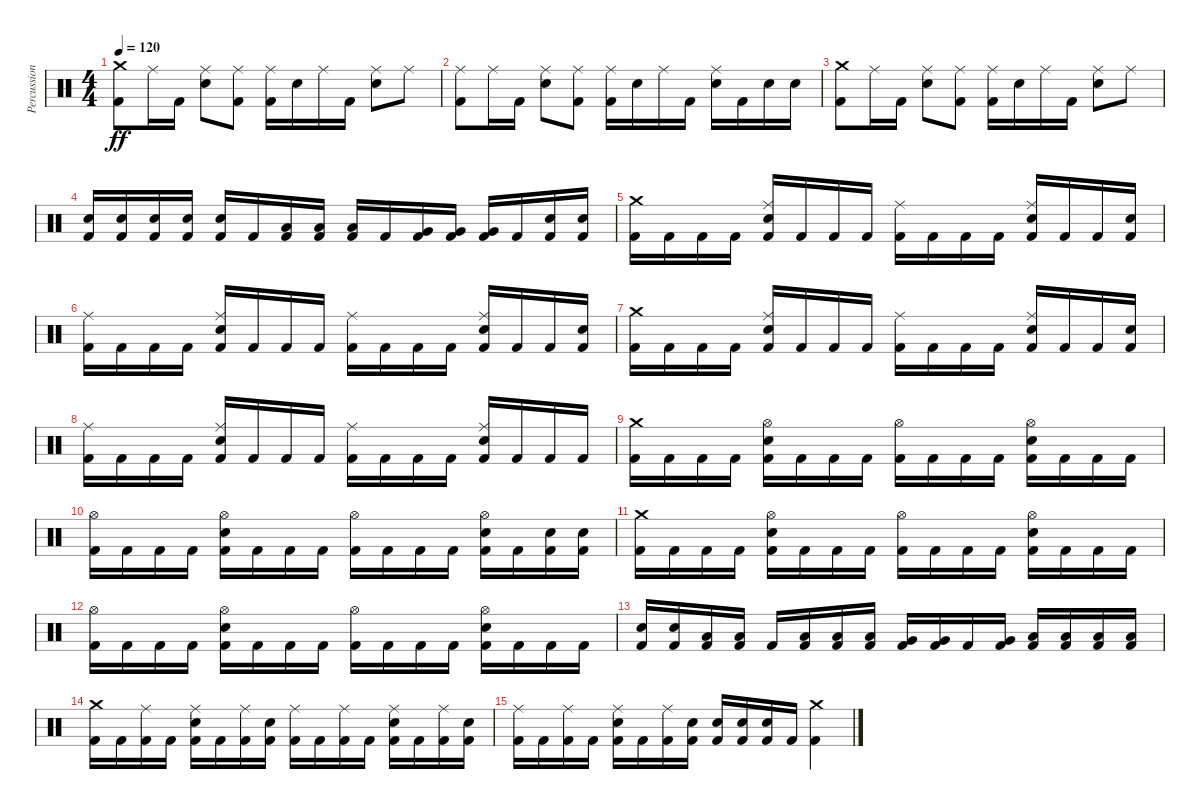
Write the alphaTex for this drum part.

\track ("Percussion" "Percussion") {instrument percussion}
\staff {score}
\articulation defaults
\ts (4 4)
\tempo 120
\clef neutral
\ks c
("Crash medium (hit)" "Kick (hit) 2").8{dy ff} "Ride (middle)".16 "Kick (hit) 2".16 ("Ride (middle)" "Snare (hit) 2").8 ("Ride (middle)" "Kick (hit) 2").8 ("Ride (middle)" "Kick (hit) 2").16 "Snare (hit) 2".16 "Ride (middle)".16 "Kick (hit) 2".16 ("Ride (middle)" "Snare (hit) 2").8 "Ride (middle)".8 |
("Ride (middle)" "Kick (hit) 2").8 "Ride (middle)".16 "Kick (hit) 2".16 ("Ride (middle)" "Snare (hit) 2").8 ("Ride (middle)" "Kick (hit) 2").8 ("Ride (middle)" "Kick (hit) 2").16 "Snare (hit) 2".16 "Ride (middle)".16 "Kick (hit) 2".16 ("Ride (middle)" "Snare (hit) 2").16 "Kick (hit) 2".16 "Snare (hit) 2".16 "Snare (hit) 2".16 |
("Crash medium (hit)" "Kick (hit) 2").8 "Ride (middle)".16 "Kick (hit) 2".16 ("Ride (middle)" "Snare (hit) 2").8 ("Ride (middle)" "Kick (hit) 2").8 ("Ride (middle)" "Kick (hit) 2").16 "Snare (hit) 2".16 "Ride (middle)".16 "Kick (hit) 2".16 ("Ride (middle)" "Snare (hit) 2").8 "Ride (middle)".8 |
("Snare (hit) 2" "Kick (hit) 2").16 ("Snare (hit) 2" "Kick (hit) 2").16 ("Snare (hit) 2" "Kick (hit) 2").16 ("Snare (hit) 2" "Kick (hit) 2").16 ("Snare (hit) 2" "Kick (hit) 2").16 "Kick (hit) 2".16 ("Low Tom (hit)" "Kick (hit) 2").16 ("Low Tom (hit)" "Kick (hit) 2").16 ("Low Tom (hit)" "Kick (hit) 2").16 "Kick (hit) 2".16 ("Very Low Tom (hit)" "Kick (hit) 2").16 ("Very Low Tom (hit)" "Kick (hit) 2").16 ("Very Low Tom (hit)" "Kick (hit) 2").16 "Kick (hit) 2".16 ("Snare (hit) 2" "Kick (hit) 2").16 ("Snare (hit) 2" "Kick (hit) 2").16 |
("Crash medium (hit)" "Kick (hit) 2").16 "Kick (hit) 2".16 "Kick (hit) 2".16 "Kick (hit) 2".16 ("Ride (middle)" "Snare (hit) 2" "Kick (hit) 2").16 "Kick (hit) 2".16 "Kick (hit) 2".16 "Kick (hit) 2".16 ("Ride (middle)" "Kick (hit) 2").16 "Kick (hit) 2".16 "Kick (hit) 2".16 "Kick (hit) 2".16 ("Ride (middle)" "Snare (hit) 2" "Kick (hit) 2").16 "Kick (hit) 2".16 "Kick (hit) 2".16 ("Snare (hit) 2" "Kick (hit) 2").16 |
("Ride (middle)" "Kick (hit) 2").16 "Kick (hit) 2".16 "Kick (hit) 2".16 "Kick (hit) 2".16 ("Ride (middle)" "Snare (hit) 2" "Kick (hit) 2").16 "Kick (hit) 2".16 "Kick (hit) 2".16 "Kick (hit) 2".16 ("Ride (middle)" "Kick (hit) 2").16 "Kick (hit) 2".16 "Kick (hit) 2".16 "Kick (hit) 2".16 ("Ride (middle)" "Snare (hit) 2" "Kick (hit) 2").16 "Kick (hit) 2".16 "Kick (hit) 2".16 ("Snare (hit) 2" "Kick (hit) 2").16 |
("Crash medium (hit)" "Kick (hit) 2").16 "Kick (hit) 2".16 "Kick (hit) 2".16 "Kick (hit) 2".16 ("Ride (middle)" "Snare (hit) 2" "Kick (hit) 2").16 "Kick (hit) 2".16 "Kick (hit) 2".16 "Kick (hit) 2".16 ("Ride (middle)" "Kick (hit) 2").16 "Kick (hit) 2".16 "Kick (hit) 2".16 "Kick (hit) 2".16 ("Ride (middle)" "Snare (hit) 2" "Kick (hit) 2").16 "Kick (hit) 2".16 "Kick (hit) 2".16 ("Snare (hit) 2" "Kick (hit) 2").16 |
("Ride (middle)" "Kick (hit) 2").16 "Kick (hit) 2".16 "Kick (hit) 2".16 "Kick (hit) 2".16 ("Ride (middle)" "Snare (hit) 2" "Kick (hit) 2").16 "Kick (hit) 2".16 "Kick (hit) 2".16 "Kick (hit) 2".16 ("Ride (middle)" "Kick (hit) 2").16 "Kick (hit) 2".16 "Kick (hit) 2".16 "Kick (hit) 2".16 ("Ride (middle)" "Snare (hit) 2" "Kick (hit) 2").16 "Kick (hit) 2".16 "Kick (hit) 2".16 "Kick (hit) 2".16 |
("Crash medium (hit)" "Kick (hit) 2").16 "Kick (hit) 2".16 "Kick (hit) 2".16 "Kick (hit) 2".16 ("Hi-Hat (open)" "Snare (hit) 2" "Kick (hit) 2").16 "Kick (hit) 2".16 "Kick (hit) 2".16 "Kick (hit) 2".16 ("Hi-Hat (open)" "Kick (hit) 2").16 "Kick (hit) 2".16 "Kick (hit) 2".16 "Kick (hit) 2".16 ("Hi-Hat (open)" "Snare (hit) 2" "Kick (hit) 2").16 "Kick (hit) 2".16 "Kick (hit) 2".16 "Kick (hit) 2".16 |
("Hi-Hat (open)" "Kick (hit) 2").16 "Kick (hit) 2".16 "Kick (hit) 2".16 "Kick (hit) 2".16 ("Hi-Hat (open)" "Snare (hit) 2" "Kick (hit) 2").16 "Kick (hit) 2".16 "Kick (hit) 2".16 "Kick (hit) 2".16 ("Hi-Hat (open)" "Kick (hit) 2").16 "Kick (hit) 2".16 "Kick (hit) 2".16 "Kick (hit) 2".16 ("Hi-Hat (open)" "Snare (hit) 2" "Kick (hit) 2").16 "Kick (hit) 2".16 ("Snare (hit) 2" "Kick (hit) 2").16 ("Snare (hit) 2" "Kick (hit) 2").16 |
("Crash medium (hit)" "Kick (hit) 2").16 "Kick (hit) 2".16 "Kick (hit) 2".16 "Kick (hit) 2".16 ("Hi-Hat (open)" "Snare (hit) 2" "Kick (hit) 2").16 "Kick (hit) 2".16 "Kick (hit) 2".16 "Kick (hit) 2".16 ("Hi-Hat (open)" "Kick (hit) 2").16 "Kick (hit) 2".16 "Kick (hit) 2".16 "Kick (hit) 2".16 ("Hi-Hat (open)" "Snare (hit) 2" "Kick (hit) 2").16 "Kick (hit) 2".16 "Kick (hit) 2".16 "Kick (hit) 2".16 |
("Hi-Hat (open)" "Kick (hit) 2").16 "Kick (hit) 2".16 "Kick (hit) 2".16 "Kick (hit) 2".16 ("Hi-Hat (open)" "Snare (hit) 2" "Kick (hit) 2").16 "Kick (hit) 2".16 "Kick (hit) 2".16 "Kick (hit) 2".16 ("Hi-Hat (open)" "Kick (hit) 2").16 "Kick (hit) 2".16 "Kick (hit) 2".16 "Kick (hit) 2".16 ("Hi-Hat (open)" "Snare (hit) 2" "Kick (hit) 2").16 "Kick (hit) 2".16 "Kick (hit) 2".16 "Kick (hit) 2".16 |
("Snare (hit) 2" "Kick (hit) 2").16 ("Snare (hit) 2" "Kick (hit) 2").16 ("Low Tom (hit)" "Kick (hit) 2").16 ("Low Tom (hit)" "Kick (hit) 2").16 "Kick (hit) 2".16 ("Low Tom (hit)" "Kick (hit) 2").16 ("Low Tom (hit)" "Kick (hit) 2").16 ("Low Tom (hit)" "Kick (hit) 2").16 ("Very Low Tom (hit)" "Kick (hit) 2").16 ("Very Low Tom (hit)" "Kick (hit) 2").16 "Kick (hit) 2".16 ("Very Low Tom (hit)" "Kick (hit) 2").16 ("Low Floor Tom (hit)" "Kick (hit) 2").16 ("Low Floor Tom (hit)" "Kick (hit) 2").16 ("Low Floor Tom (hit)" "Kick (hit) 2").16 ("Low Floor Tom (hit)" "Kick (hit) 2").16 |
("Crash medium (hit)" "Kick (hit) 2").16 "Kick (hit) 2".16 ("Ride (middle)" "Kick (hit) 2").16 "Kick (hit) 2".16 ("Ride (middle)" "Snare (hit) 2" "Kick (hit) 2").16 "Kick (hit) 2".16 ("Ride (middle)" "Kick (hit) 2").16 ("Snare (hit) 2" "Kick (hit) 2").16 ("Ride (middle)" "Kick (hit) 2").16 "Kick (hit) 2".16 ("Ride (middle)" "Kick (hit) 2").16 "Kick (hit) 2".16 ("Ride (middle)" "Snare (hit) 2" "Kick (hit) 2").16 "Kick (hit) 2".16 ("Ride (middle)" "Kick (hit) 2").16 ("Snare (hit) 2" "Kick (hit) 2").16 |
("Ride (middle)" "Kick (hit) 2").16 "Kick (hit) 2".16 ("Ride (middle)" "Kick (hit) 2").16 "Kick (hit) 2".16 ("Ride (middle)" "Snare (hit) 2" "Kick (hit) 2").16 "Kick (hit) 2".16 ("Ride (middle)" "Kick (hit) 2").16 ("Snare (hit) 2" "Kick (hit) 2").16 ("Snare (hit) 2" "Kick (hit) 2").16 ("Snare (hit) 2" "Kick (hit) 2").16 ("Snare (hit) 2" "Kick (hit) 2").16 "Kick (hit) 2".16 ("Crash medium (hit)" "Kick (hit) 2").4
